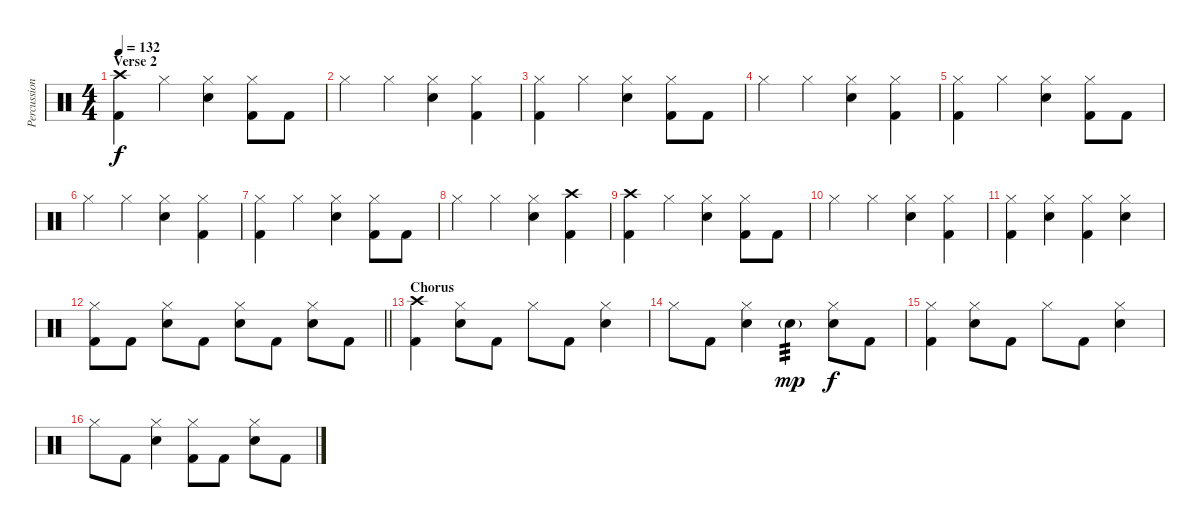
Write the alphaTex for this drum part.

\track ("Percussion" "Percussion") {instrument percussion}
\staff {score}
\articulation defaults
\ts (4 4)
\section ("" "Verse 2")
\tempo 132
\clef neutral
\ks c
("Crash high (hit)" "Kick (hit) 2").4{dy f} "Hi-Hat (closed)".4 ("Hi-Hat (closed)" "Snare (hit) 2").4 ("Hi-Hat (closed)" "Kick (hit) 2").8 "Kick (hit) 2".8 |
"Hi-Hat (closed)".4 "Hi-Hat (closed)".4 ("Hi-Hat (closed)" "Snare (hit) 2").4 ("Hi-Hat (closed)" "Kick (hit) 2").4 |
("Hi-Hat (closed)" "Kick (hit) 2").4 "Hi-Hat (closed)".4 ("Hi-Hat (closed)" "Snare (hit) 2").4 ("Hi-Hat (closed)" "Kick (hit) 2").8 "Kick (hit) 2".8 |
"Hi-Hat (closed)".4 "Hi-Hat (closed)".4 ("Hi-Hat (closed)" "Snare (hit) 2").4 ("Hi-Hat (closed)" "Kick (hit) 2").4 |
("Hi-Hat (closed)" "Kick (hit) 2").4 "Hi-Hat (closed)".4 ("Hi-Hat (closed)" "Snare (hit) 2").4 ("Hi-Hat (closed)" "Kick (hit) 2").8 "Kick (hit) 2".8 |
"Hi-Hat (closed)".4 "Hi-Hat (closed)".4 ("Hi-Hat (closed)" "Snare (hit) 2").4 ("Hi-Hat (closed)" "Kick (hit) 2").4 |
("Hi-Hat (closed)" "Kick (hit) 2").4 "Hi-Hat (closed)".4 ("Hi-Hat (closed)" "Snare (hit) 2").4 ("Hi-Hat (closed)" "Kick (hit) 2").8 "Kick (hit) 2".8 |
"Hi-Hat (closed)".4 "Hi-Hat (closed)".4 ("Hi-Hat (closed)" "Snare (hit) 2").4 ("Crash high (hit)" "Kick (hit) 2").4 |
("Crash high (hit)" "Kick (hit) 2").4 "Hi-Hat (closed)".4 ("Hi-Hat (closed)" "Snare (hit) 2").4 ("Hi-Hat (closed)" "Kick (hit) 2").8 "Kick (hit) 2".8 |
"Hi-Hat (closed)".4 "Hi-Hat (closed)".4 ("Hi-Hat (closed)" "Snare (hit) 2").4 ("Hi-Hat (closed)" "Kick (hit) 2").4 |
("Hi-Hat (closed)" "Kick (hit) 2").4 ("Hi-Hat (closed)" "Snare (hit) 2").4 ("Hi-Hat (closed)" "Kick (hit) 2").4 ("Hi-Hat (closed)" "Snare (hit) 2").4 |
\barLineRight lightlight
("Hi-Hat (closed)" "Kick (hit) 2").8 "Kick (hit) 2".8 ("Hi-Hat (closed)" "Snare (hit) 2").8 "Kick (hit) 2".8 ("Hi-Hat (closed)" "Snare (hit) 2").8 "Kick (hit) 2".8 ("Hi-Hat (closed)" "Snare (hit) 2").8 "Kick (hit) 2".8 |
\section ("" "Chorus")
("Crash high (hit)" "Kick (hit) 2").4 ("Hi-Hat (closed)" "Snare (hit) 2").8 "Kick (hit) 2".8 "Hi-Hat (closed)".8 "Kick (hit) 2".8 ("Hi-Hat (closed)" "Snare (hit) 2").4 |
"Hi-Hat (closed)".8 "Kick (hit) 2".8 ("Hi-Hat (closed)" "Snare (hit) 2").4 "Snare (hit) 2"{g}.4{tp 3 dy mp} ("Hi-Hat (closed)" "Snare (hit) 2").8{dy f} "Kick (hit) 2".8 |
("Hi-Hat (closed)" "Kick (hit) 2").4 ("Hi-Hat (closed)" "Snare (hit) 2").8 "Kick (hit) 2".8 "Hi-Hat (closed)".8 "Kick (hit) 2".8 ("Hi-Hat (closed)" "Snare (hit) 2").4 |
"Hi-Hat (closed)".8 "Kick (hit) 2".8 ("Hi-Hat (closed)" "Snare (hit) 2").4 ("Hi-Hat (closed)" "Kick (hit) 2").8 "Kick (hit) 2".8 ("Hi-Hat (closed)" "Snare (hit) 2").8 "Kick (hit) 2".8
